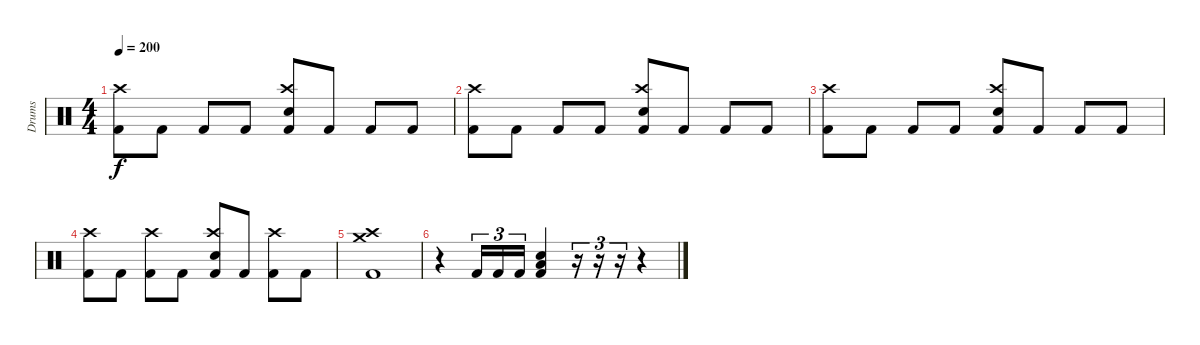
\track ("Drums" "Drums") {instrument percussion}
\staff {score}
\articulation defaults
\ts (4 4)
\tempo 200
\clef neutral
\ks c
("Kick (hit) 2" "Crash high (hit)").8{dy f} "Kick (hit) 2".8 "Kick (hit) 2".8 "Kick (hit) 2".8 ("Kick (hit) 2" "Crash high (hit)" "Electric Snare (hit)").8 "Kick (hit) 2".8 "Kick (hit) 2".8 "Kick (hit) 2".8 |
("Kick (hit) 2" "Crash high (hit)").8 "Kick (hit) 2".8 "Kick (hit) 2".8 "Kick (hit) 2".8 ("Kick (hit) 2" "Crash high (hit)" "Electric Snare (hit)").8 "Kick (hit) 2".8 "Kick (hit) 2".8 "Kick (hit) 2".8 |
("Kick (hit) 2" "Crash high (hit)").8 "Kick (hit) 2".8 "Kick (hit) 2".8 "Kick (hit) 2".8 ("Kick (hit) 2" "Crash high (hit)" "Electric Snare (hit)").8 "Kick (hit) 2".8 "Kick (hit) 2".8 "Kick (hit) 2".8 |
("Kick (hit) 2" "Crash high (hit)").8 "Kick (hit) 2".8 ("Kick (hit) 2" "Crash high (hit)").8 "Kick (hit) 2".8 ("Kick (hit) 2" "Crash high (hit)" "Electric Snare (hit)").8 "Kick (hit) 2".8 ("Kick (hit) 2" "Crash high (hit)").8 "Kick (hit) 2".8 |
("Crash high (hit)" "Crash medium (hit)" "Kick (hit) 2").1 |
r.4 "Kick (hit) 2".16{tu (3 2)} "Kick (hit) 2".16{tu (3 2)} "Kick (hit) 2".16{tu (3 2)} ("Electric Snare (hit)" "Low Floor Tom (hit)" "Kick (hit) 2").4 r.16{tu (3 2)} r.16{tu (3 2)} r.16{tu (3 2)} r.4
